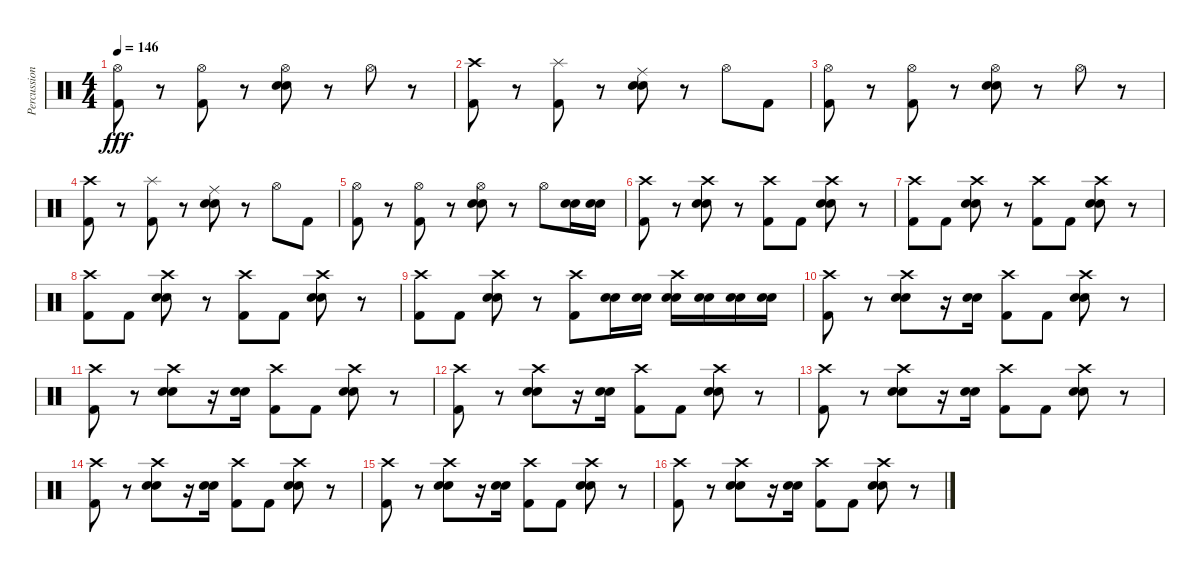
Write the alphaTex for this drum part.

\track ("Percussion" "Percussion") {instrument percussion}
\staff {score}
\articulation defaults
\ts (4 4)
\tempo 146
\clef neutral
\ks c
("Kick (hit) 2" "Hi-Hat (open)").8{dy fff} r.8 ("Kick (hit) 2" "Hi-Hat (open)").8 r.8 ("Electric Snare (hit)" "Snare (hit) 2" "Hi-Hat (open)").8 r.8 "Hi-Hat (open)".8 r.8 |
("Kick (hit) 2" "Crash high (hit)").8 r.8 ("Kick (hit) 2" "Splash (hit)").8 r.8 ("Electric Snare (hit)" "Snare (hit) 2" "Ride (middle)").8 r.8 "Hi-Hat (open)".8 "Kick (hit) 2".8 |
("Kick (hit) 2" "Hi-Hat (open)").8 r.8 ("Kick (hit) 2" "Hi-Hat (open)").8 r.8 ("Electric Snare (hit)" "Snare (hit) 2" "Hi-Hat (open)").8 r.8 "Hi-Hat (open)".8 r.8 |
("Kick (hit) 2" "Crash high (hit)").8 r.8 ("Kick (hit) 2" "Splash (hit)").8 r.8 ("Electric Snare (hit)" "Snare (hit) 2" "Ride (middle)").8 r.8 "Hi-Hat (open)".8 "Kick (hit) 2".8 |
("Kick (hit) 2" "Hi-Hat (open)").8 r.8 ("Kick (hit) 2" "Hi-Hat (open)").8 r.8 ("Electric Snare (hit)" "Snare (hit) 2" "Hi-Hat (open)").8 r.8 "Hi-Hat (open)".8 ("Snare (hit) 2" "Electric Snare (hit)").16 ("Snare (hit) 2" "Electric Snare (hit)").16 |
("Kick (hit) 2" "Crash high (hit)").8 r.8 ("Electric Snare (hit)" "Snare (hit) 2" "Crash high (hit)").8 r.8 ("Kick (hit) 2" "Crash high (hit)").8 "Kick (hit) 2".8 ("Electric Snare (hit)" "Snare (hit) 2" "Crash high (hit)").8 r.8 |
("Kick (hit) 2" "Crash high (hit)").8 "Kick (hit) 2".8 ("Electric Snare (hit)" "Snare (hit) 2" "Crash high (hit)").8 r.8 ("Kick (hit) 2" "Crash high (hit)").8 "Kick (hit) 2".8 ("Electric Snare (hit)" "Snare (hit) 2" "Crash high (hit)").8 r.8 |
("Kick (hit) 2" "Crash high (hit)").8 "Kick (hit) 2".8 ("Electric Snare (hit)" "Snare (hit) 2" "Crash high (hit)").8 r.8 ("Kick (hit) 2" "Crash high (hit)").8 "Kick (hit) 2".8 ("Electric Snare (hit)" "Snare (hit) 2" "Crash high (hit)").8 r.8 |
("Kick (hit) 2" "Crash high (hit)").8 "Kick (hit) 2".8 ("Snare (hit) 2" "Electric Snare (hit)" "Crash high (hit)").8 r.8 ("Kick (hit) 2" "Crash high (hit)").8 ("Snare (hit) 2" "Electric Snare (hit)").16 ("Snare (hit) 2" "Electric Snare (hit)").16 ("Snare (hit) 2" "Electric Snare (hit)" "Crash high (hit)").16 ("Snare (hit) 2" "Electric Snare (hit)").16 ("Snare (hit) 2" "Electric Snare (hit)").16 ("Snare (hit) 2" "Electric Snare (hit)").16 |
("Crash high (hit)" "Kick (hit) 2").8 r.8 ("Crash high (hit)" "Electric Snare (hit)" "Snare (hit) 2").8 r.16 ("Electric Snare (hit)" "Snare (hit) 2").16 ("Crash high (hit)" "Kick (hit) 2").8 "Kick (hit) 2".8 ("Crash high (hit)" "Electric Snare (hit)" "Snare (hit) 2").8 r.8 |
("Crash high (hit)" "Kick (hit) 2").8 r.8 ("Crash high (hit)" "Electric Snare (hit)" "Snare (hit) 2").8 r.16 ("Electric Snare (hit)" "Snare (hit) 2").16 ("Crash high (hit)" "Kick (hit) 2").8 "Kick (hit) 2".8 ("Crash high (hit)" "Electric Snare (hit)" "Snare (hit) 2").8 r.8 |
("Crash high (hit)" "Kick (hit) 2").8 r.8 ("Crash high (hit)" "Electric Snare (hit)" "Snare (hit) 2").8 r.16 ("Electric Snare (hit)" "Snare (hit) 2").16 ("Crash high (hit)" "Kick (hit) 2").8 "Kick (hit) 2".8 ("Crash high (hit)" "Electric Snare (hit)" "Snare (hit) 2").8 r.8 |
("Crash high (hit)" "Kick (hit) 2").8 r.8 ("Crash high (hit)" "Electric Snare (hit)" "Snare (hit) 2").8 r.16 ("Electric Snare (hit)" "Snare (hit) 2").16 ("Crash high (hit)" "Kick (hit) 2").8 "Kick (hit) 2".8 ("Crash high (hit)" "Electric Snare (hit)" "Snare (hit) 2").8 r.8 |
("Crash high (hit)" "Kick (hit) 2").8 r.8 ("Crash high (hit)" "Electric Snare (hit)" "Snare (hit) 2").8 r.16 ("Electric Snare (hit)" "Snare (hit) 2").16 ("Crash high (hit)" "Kick (hit) 2").8 "Kick (hit) 2".8 ("Crash high (hit)" "Electric Snare (hit)" "Snare (hit) 2").8 r.8 |
("Crash high (hit)" "Kick (hit) 2").8 r.8 ("Crash high (hit)" "Electric Snare (hit)" "Snare (hit) 2").8 r.16 ("Electric Snare (hit)" "Snare (hit) 2").16 ("Crash high (hit)" "Kick (hit) 2").8 "Kick (hit) 2".8 ("Crash high (hit)" "Electric Snare (hit)" "Snare (hit) 2").8 r.8 |
("Crash high (hit)" "Kick (hit) 2").8 r.8 ("Crash high (hit)" "Electric Snare (hit)" "Snare (hit) 2").8 r.16 ("Electric Snare (hit)" "Snare (hit) 2").16 ("Crash high (hit)" "Kick (hit) 2").8 "Kick (hit) 2".8 ("Crash high (hit)" "Electric Snare (hit)" "Snare (hit) 2").8 r.8
